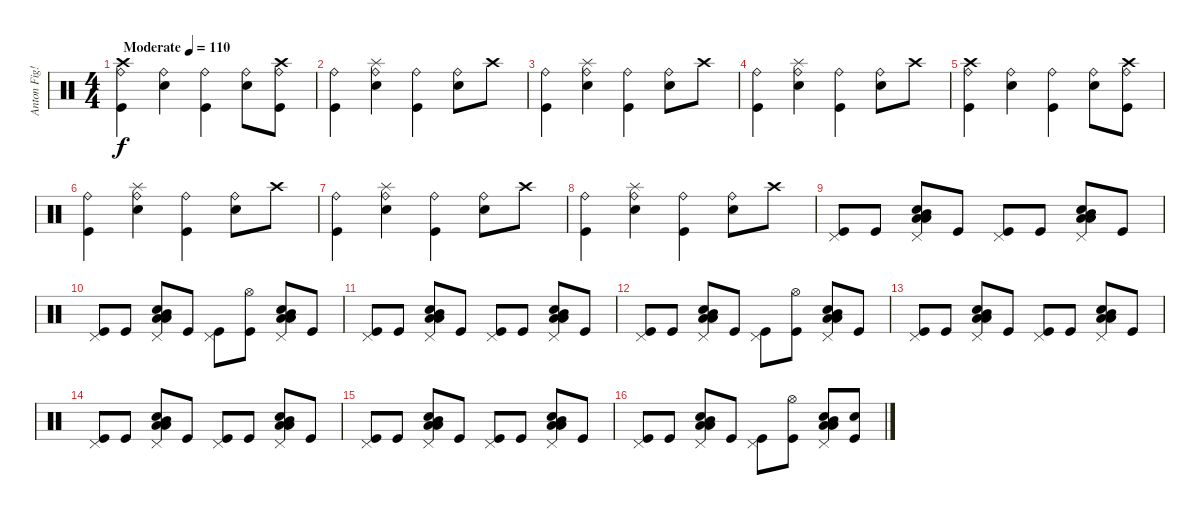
\track ("Anton Fig!?!" "Anton Fig!") {instrument percussion}
\staff {score}
\articulation defaults
\ts (4 4)
\tempo (110 "Moderate")
\clef neutral
\ks c
("Ride (bell)" "Crash high (hit)" "Kick (hit)").4{dy f} ("Ride (bell)" "Electric Snare (hit)").4 ("Ride (bell)" "Kick (hit)").4 ("Ride (bell)" "Electric Snare (hit)").8 ("Ride (bell)" "Crash high (hit)" "Kick (hit)").8 |
("Ride (bell)" "Kick (hit)").4 ("Ride (bell)" "Splash (hit)" "Electric Snare (hit)").4 ("Ride (bell)" "Kick (hit)").4 ("Ride (bell)" "Electric Snare (hit)").8 "Crash high (hit)".8 |
("Ride (bell)" "Kick (hit)").4 ("Ride (bell)" "Splash (hit)" "Electric Snare (hit)").4 ("Ride (bell)" "Kick (hit)").4 ("Ride (bell)" "Electric Snare (hit)").8 "Crash high (hit)".8 |
("Ride (bell)" "Kick (hit)").4 ("Ride (bell)" "Splash (hit)" "Electric Snare (hit)").4 ("Ride (bell)" "Kick (hit)").4 ("Ride (bell)" "Electric Snare (hit)").8 "Crash high (hit)".8 |
("Ride (bell)" "Crash high (hit)" "Kick (hit)").4 ("Ride (bell)" "Electric Snare (hit)").4 ("Ride (bell)" "Kick (hit)").4 ("Ride (bell)" "Electric Snare (hit)").8 ("Ride (bell)" "Crash high (hit)" "Kick (hit)").8 |
("Ride (bell)" "Kick (hit)").4 ("Ride (bell)" "Splash (hit)" "Electric Snare (hit)").4 ("Ride (bell)" "Kick (hit)").4 ("Ride (bell)" "Electric Snare (hit)").8 "Crash high (hit)".8 |
("Ride (bell)" "Kick (hit)").4 ("Ride (bell)" "Splash (hit)" "Electric Snare (hit)").4 ("Ride (bell)" "Kick (hit)").4 ("Ride (bell)" "Electric Snare (hit)").8 "Crash high (hit)".8 |
("Ride (bell)" "Kick (hit)").4 ("Ride (bell)" "Splash (hit)" "Electric Snare (hit)").4 ("Ride (bell)" "Kick (hit)").4 ("Ride (bell)" "Electric Snare (hit)").8 "Crash high (hit)".8 |
("Kick (hit)" "Pedal Hi-Hat (hit)").8 "Kick (hit)".8 ("Low Tom (hit)" "Mid Tom (hit)" "Low Floor Tom (hit)" "Electric Snare (hit)" "Pedal Hi-Hat (hit)").8 "Kick (hit)".8 ("Kick (hit)" "Pedal Hi-Hat (hit)").8 "Kick (hit)".8 ("Low Tom (hit)" "Mid Tom (hit)" "Low Floor Tom (hit)" "Electric Snare (hit)" "Pedal Hi-Hat (hit)").8 "Kick (hit)".8 |
("Kick (hit)" "Pedal Hi-Hat (hit)").8 "Kick (hit)".8 ("Low Tom (hit)" "Mid Tom (hit)" "Low Floor Tom (hit)" "Electric Snare (hit)" "Pedal Hi-Hat (hit)").8 "Kick (hit)".8 ("Kick (hit)" "Pedal Hi-Hat (hit)").8 ("Kick (hit)" "Hi-Hat (open)").8 ("Low Tom (hit)" "Mid Tom (hit)" "Low Floor Tom (hit)" "Electric Snare (hit)" "Pedal Hi-Hat (hit)").8 "Kick (hit)".8 |
("Kick (hit)" "Pedal Hi-Hat (hit)").8 "Kick (hit)".8 ("Low Tom (hit)" "Mid Tom (hit)" "Low Floor Tom (hit)" "Electric Snare (hit)" "Pedal Hi-Hat (hit)").8 "Kick (hit)".8 ("Kick (hit)" "Pedal Hi-Hat (hit)").8 "Kick (hit)".8 ("Low Tom (hit)" "Mid Tom (hit)" "Low Floor Tom (hit)" "Electric Snare (hit)" "Pedal Hi-Hat (hit)").8 "Kick (hit)".8 |
("Kick (hit)" "Pedal Hi-Hat (hit)").8 "Kick (hit)".8 ("Low Tom (hit)" "Mid Tom (hit)" "Low Floor Tom (hit)" "Electric Snare (hit)" "Pedal Hi-Hat (hit)").8 "Kick (hit)".8 ("Kick (hit)" "Pedal Hi-Hat (hit)").8 ("Kick (hit)" "Hi-Hat (open)").8 ("Low Tom (hit)" "Mid Tom (hit)" "Low Floor Tom (hit)" "Electric Snare (hit)" "Pedal Hi-Hat (hit)").8 "Kick (hit)".8 |
("Kick (hit)" "Pedal Hi-Hat (hit)").8 "Kick (hit)".8 ("Low Tom (hit)" "Mid Tom (hit)" "Low Floor Tom (hit)" "Electric Snare (hit)" "Pedal Hi-Hat (hit)").8 "Kick (hit)".8 ("Kick (hit)" "Pedal Hi-Hat (hit)").8 "Kick (hit)".8 ("Low Tom (hit)" "Mid Tom (hit)" "Low Floor Tom (hit)" "Electric Snare (hit)" "Pedal Hi-Hat (hit)").8 "Kick (hit)".8 |
("Kick (hit)" "Pedal Hi-Hat (hit)").8 "Kick (hit)".8 ("Low Tom (hit)" "Mid Tom (hit)" "Low Floor Tom (hit)" "Electric Snare (hit)" "Pedal Hi-Hat (hit)").8 "Kick (hit)".8 ("Kick (hit)" "Pedal Hi-Hat (hit)").8 "Kick (hit)".8 ("Low Tom (hit)" "Mid Tom (hit)" "Low Floor Tom (hit)" "Electric Snare (hit)" "Pedal Hi-Hat (hit)").8 "Kick (hit)".8 |
("Kick (hit)" "Pedal Hi-Hat (hit)").8 "Kick (hit)".8 ("Low Tom (hit)" "Mid Tom (hit)" "Low Floor Tom (hit)" "Electric Snare (hit)" "Pedal Hi-Hat (hit)").8 "Kick (hit)".8 ("Kick (hit)" "Pedal Hi-Hat (hit)").8 "Kick (hit)".8 ("Low Tom (hit)" "Mid Tom (hit)" "Low Floor Tom (hit)" "Electric Snare (hit)" "Pedal Hi-Hat (hit)").8 "Kick (hit)".8 |
("Kick (hit)" "Pedal Hi-Hat (hit)").8 "Kick (hit)".8 ("Low Tom (hit)" "Mid Tom (hit)" "Low Floor Tom (hit)" "Electric Snare (hit)" "Pedal Hi-Hat (hit)").8 "Kick (hit)".8 ("Kick (hit)" "Pedal Hi-Hat (hit)").8 ("Kick (hit)" "Hi-Hat (open)").8 ("Low Tom (hit)" "Mid Tom (hit)" "Low Floor Tom (hit)" "Electric Snare (hit)" "Pedal Hi-Hat (hit)").8 ("Kick (hit)" "Electric Snare (hit)").8
